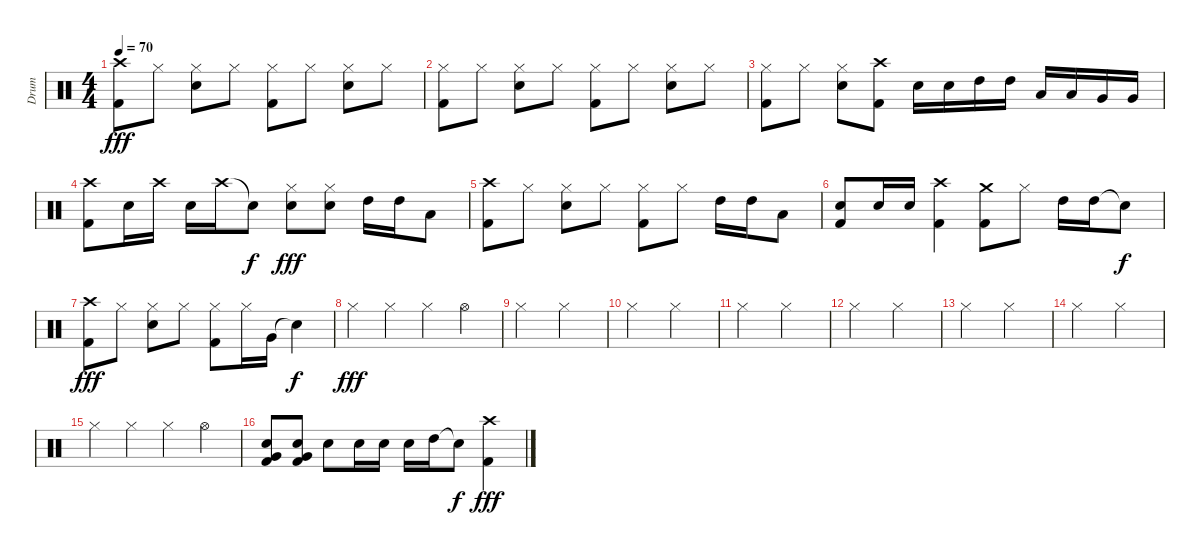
\track ("Drum" "Drum") {instrument percussion}
\staff {score}
\articulation defaults
\ts (4 4)
\tempo 70
\clef neutral
\ks c
("Crash high (hit)" "Kick (hit) 2").8{dy fff} "Hi-Hat (closed)".8 ("Hi-Hat (closed)" "Electric Snare (hit)").8 "Hi-Hat (closed)".8 ("Hi-Hat (closed)" "Kick (hit) 2").8 "Hi-Hat (closed)".8 ("Hi-Hat (closed)" "Electric Snare (hit)").8 "Hi-Hat (closed)".8 |
("Hi-Hat (closed)" "Kick (hit) 2").8 "Hi-Hat (closed)".8 ("Hi-Hat (closed)" "Electric Snare (hit)").8 "Hi-Hat (closed)".8 ("Hi-Hat (closed)" "Kick (hit) 2").8 "Hi-Hat (closed)".8 ("Hi-Hat (closed)" "Electric Snare (hit)").8 "Hi-Hat (closed)".8 |
("Hi-Hat (closed)" "Kick (hit) 2").8 "Hi-Hat (closed)".8 ("Hi-Hat (closed)" "Electric Snare (hit)").8 ("Crash high (hit)" "Kick (hit) 2").8 "Electric Snare (hit)".16 "Electric Snare (hit)".16 "High Tom (hit)".16 "High Tom (hit)".16 "Low Tom (hit)".16 "Low Tom (hit)".16 "Very Low Tom (hit)".16 "Very Low Tom (hit)".16 |
("Crash high (hit)" "Kick (hit) 2").8 "Electric Snare (hit)".16 "Crash high (hit)".16 "Electric Snare (hit)".16 "Crash high (hit)".16 "Snare (hit)"{t}.8{dy f} ("Hi-Hat (closed)" "Electric Snare (hit)").8{dy fff} ("Hi-Hat (closed)" "Electric Snare (hit)").8 "High Tom (hit)".16 "High Tom (hit)".16 "Low Tom (hit)".8 |
("Crash high (hit)" "Kick (hit) 2").8 "Hi-Hat (closed)".8 ("Hi-Hat (closed)" "Electric Snare (hit)").8 "Hi-Hat (closed)".8 ("Hi-Hat (closed)" "Kick (hit) 2").8 "Hi-Hat (closed)".8 "High Tom (hit)".16 "High Tom (hit)".16 "Low Tom (hit)".8 |
("Electric Snare (hit)" "Kick (hit) 2").8 "Electric Snare (hit)".16 "Electric Snare (hit)".16 ("Crash high (hit)" "Kick (hit) 2").4 ("Crash medium (hit)" "Kick (hit) 2").8 "Hi-Hat (closed)".8 "High Tom (hit)".16 "High Tom (hit)".16 "Snare (hit)"{t}.8{dy f} |
("Crash high (hit)" "Kick (hit) 2").8{dy fff} "Hi-Hat (closed)".8 ("Hi-Hat (closed)" "Electric Snare (hit)").8 "Hi-Hat (closed)".8 ("Hi-Hat (closed)" "Kick (hit) 2").8 "Hi-Hat (closed)".16 "Very Low Tom (hit)".16 "Snare (hit)"{t}.4{dy f} |
"Hi-Hat (closed)".4{dy fff} "Hi-Hat (closed)".4 "Hi-Hat (closed)".4 "Hi-Hat (open)".4 |
"Hi-Hat (closed)".2 "Hi-Hat (closed)".2 |
"Hi-Hat (closed)".2 "Hi-Hat (closed)".2 |
"Hi-Hat (closed)".2 "Hi-Hat (closed)".2 |
"Hi-Hat (closed)".2 "Hi-Hat (closed)".2 |
"Hi-Hat (closed)".2 "Hi-Hat (closed)".2 |
"Hi-Hat (closed)".2 "Hi-Hat (closed)".2 |
"Hi-Hat (closed)".4 "Hi-Hat (closed)".4 "Hi-Hat (closed)".4 "Hi-Hat (open)".4 |
("Electric Snare (hit)" "Very Low Tom (hit)" "Kick (hit) 2").8 ("Electric Snare (hit)" "Very Low Tom (hit)" "Kick (hit) 2").8 "Electric Snare (hit)".8 "Electric Snare (hit)".16 "Electric Snare (hit)".16 "Electric Snare (hit)".16 "High Tom (hit)".16 "Snare (hit)"{t}.8{dy f} ("Crash high (hit)" "Kick (hit) 2").4{dy fff}
